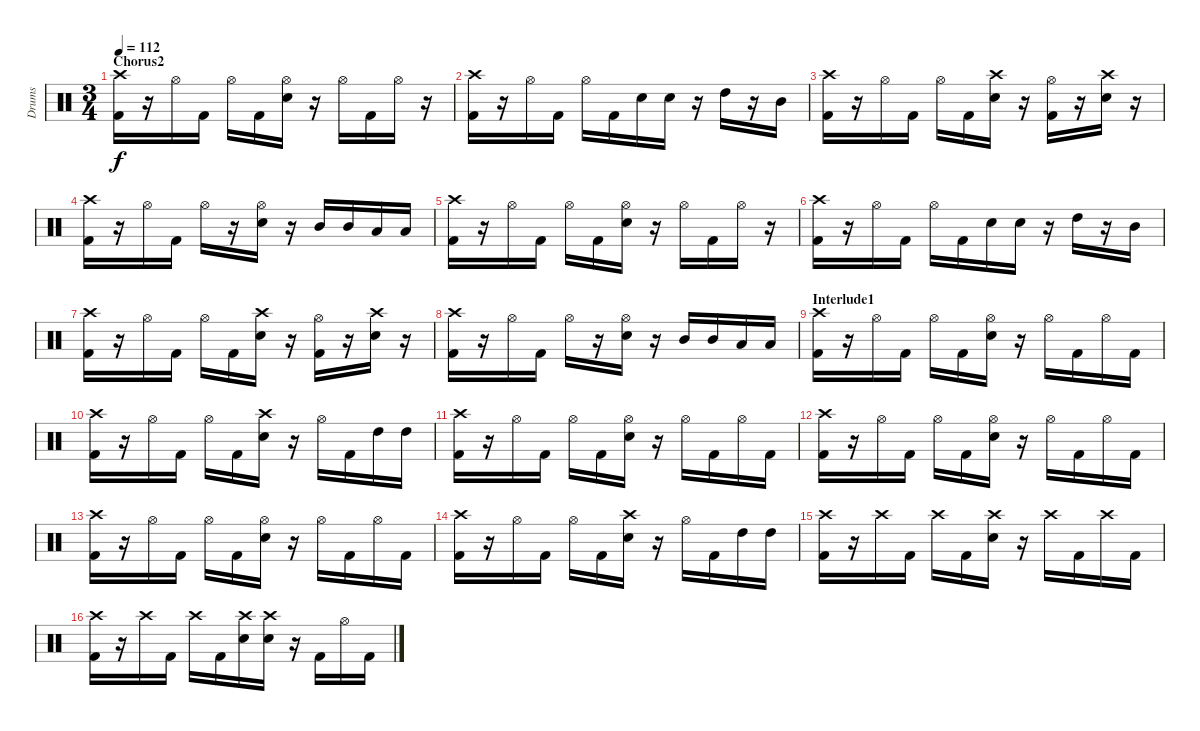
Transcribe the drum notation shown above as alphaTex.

\track ("Drums" "Drums") {instrument percussion}
\staff {score}
\articulation defaults
\ts (3 4)
\section ("" "Chorus2")
\tempo 112
\clef neutral
\ks c
("Crash high (hit)" "Kick (hit) 2").16{dy f} r.16 "Hi-Hat (open)".16 "Kick (hit) 2".16 "Hi-Hat (open)".16 "Kick (hit) 2".16 ("Hi-Hat (open)" "Electric Snare (hit)").16 r.16 "Hi-Hat (open)".16 "Kick (hit) 2".16 "Hi-Hat (open)".16 r.16 |
("Crash high (hit)" "Kick (hit) 2").16 r.16 "Hi-Hat (open)".16 "Kick (hit) 2".16 "Hi-Hat (open)".16 "Kick (hit) 2".16 "Electric Snare (hit)".16 "Electric Snare (hit)".16 r.16 "High Tom (hit)".16 r.16 "Mid Tom (hit)".16 |
("Crash high (hit)" "Kick (hit) 2").16 r.16 "Hi-Hat (open)".16 "Kick (hit) 2".16 "Hi-Hat (open)".16 "Kick (hit) 2".16 ("Crash high (hit)" "Electric Snare (hit)").16 r.16 ("Hi-Hat (open)" "Kick (hit) 2").16 r.16 ("Crash high (hit)" "Electric Snare (hit)").16 r.16 |
("Crash high (hit)" "Kick (hit) 2").16 r.16 "Hi-Hat (open)".16 "Kick (hit) 2".16 "Hi-Hat (open)".16 r.16 ("Hi-Hat (open)" "Electric Snare (hit)").16 r.16 "Mid Tom (hit)".16 "Mid Tom (hit)".16 "Low Tom (hit)".16 "Low Tom (hit)".16 |
("Crash high (hit)" "Kick (hit) 2").16 r.16 "Hi-Hat (open)".16 "Kick (hit) 2".16 "Hi-Hat (open)".16 "Kick (hit) 2".16 ("Hi-Hat (open)" "Electric Snare (hit)").16 r.16 "Hi-Hat (open)".16 "Kick (hit) 2".16 "Hi-Hat (open)".16 r.16 |
("Crash high (hit)" "Kick (hit) 2").16 r.16 "Hi-Hat (open)".16 "Kick (hit) 2".16 "Hi-Hat (open)".16 "Kick (hit) 2".16 "Electric Snare (hit)".16 "Electric Snare (hit)".16 r.16 "High Tom (hit)".16 r.16 "Mid Tom (hit)".16 |
("Crash high (hit)" "Kick (hit) 2").16 r.16 "Hi-Hat (open)".16 "Kick (hit) 2".16 "Hi-Hat (open)".16 "Kick (hit) 2".16 ("Crash high (hit)" "Electric Snare (hit)").16 r.16 ("Hi-Hat (open)" "Kick (hit) 2").16 r.16 ("Crash high (hit)" "Electric Snare (hit)").16 r.16 |
("Crash high (hit)" "Kick (hit) 2").16 r.16 "Hi-Hat (open)".16 "Kick (hit) 2".16 "Hi-Hat (open)".16 r.16 ("Hi-Hat (open)" "Electric Snare (hit)").16 r.16 "Mid Tom (hit)".16 "Mid Tom (hit)".16 "Low Tom (hit)".16 "Low Tom (hit)".16 |
\section ("" "Interlude1")
("Crash high (hit)" "Kick (hit) 2").16 r.16 "Hi-Hat (open)".16 "Kick (hit) 2".16 "Hi-Hat (open)".16 "Kick (hit) 2".16 ("Hi-Hat (open)" "Electric Snare (hit)").16 r.16 "Hi-Hat (open)".16 "Kick (hit) 2".16 "Hi-Hat (open)".16 "Kick (hit) 2".16 |
("Crash high (hit)" "Kick (hit) 2").16 r.16 "Hi-Hat (open)".16 "Kick (hit) 2".16 "Hi-Hat (open)".16 "Kick (hit) 2".16 ("Crash high (hit)" "Electric Snare (hit)").16 r.16 "Hi-Hat (open)".16 "Kick (hit) 2".16 "High Tom (hit)".16 "High Tom (hit)".16 |
("Crash high (hit)" "Kick (hit) 2").16 r.16 "Hi-Hat (open)".16 "Kick (hit) 2".16 "Hi-Hat (open)".16 "Kick (hit) 2".16 ("Hi-Hat (open)" "Electric Snare (hit)").16 r.16 "Hi-Hat (open)".16 "Kick (hit) 2".16 "Hi-Hat (open)".16 "Kick (hit) 2".16 |
("Crash high (hit)" "Kick (hit) 2").16 r.16 "Hi-Hat (open)".16 "Kick (hit) 2".16 "Hi-Hat (open)".16 "Kick (hit) 2".16 ("Hi-Hat (open)" "Electric Snare (hit)").16 r.16 "Hi-Hat (open)".16 "Kick (hit) 2".16 "Hi-Hat (open)".16 "Kick (hit) 2".16 |
("Crash high (hit)" "Kick (hit) 2").16 r.16 "Hi-Hat (open)".16 "Kick (hit) 2".16 "Hi-Hat (open)".16 "Kick (hit) 2".16 ("Hi-Hat (open)" "Electric Snare (hit)").16 r.16 "Hi-Hat (open)".16 "Kick (hit) 2".16 "Hi-Hat (open)".16 "Kick (hit) 2".16 |
("Crash high (hit)" "Kick (hit) 2").16 r.16 "Hi-Hat (open)".16 "Kick (hit) 2".16 "Hi-Hat (open)".16 "Kick (hit) 2".16 ("Crash high (hit)" "Electric Snare (hit)").16 r.16 "Hi-Hat (open)".16 "Kick (hit) 2".16 "High Tom (hit)".16 "High Tom (hit)".16 |
("Crash high (hit)" "Kick (hit) 2").16 r.16 "Crash high (hit)".16 "Kick (hit) 2".16 "Crash high (hit)".16 "Kick (hit) 2".16 ("Crash high (hit)" "Electric Snare (hit)").16 r.16 "Crash high (hit)".16 "Kick (hit) 2".16 "Crash high (hit)".16 "Kick (hit) 2".16 |
("Crash high (hit)" "Kick (hit) 2").16 r.16 "Crash high (hit)".16 "Kick (hit) 2".16 "Crash high (hit)".16 "Kick (hit) 2".16 ("Crash high (hit)" "Electric Snare (hit)").16 ("Crash high (hit)" "Electric Snare (hit)").16 r.16 "Kick (hit) 2".16 "Hi-Hat (open)".16 "Kick (hit) 2".16
